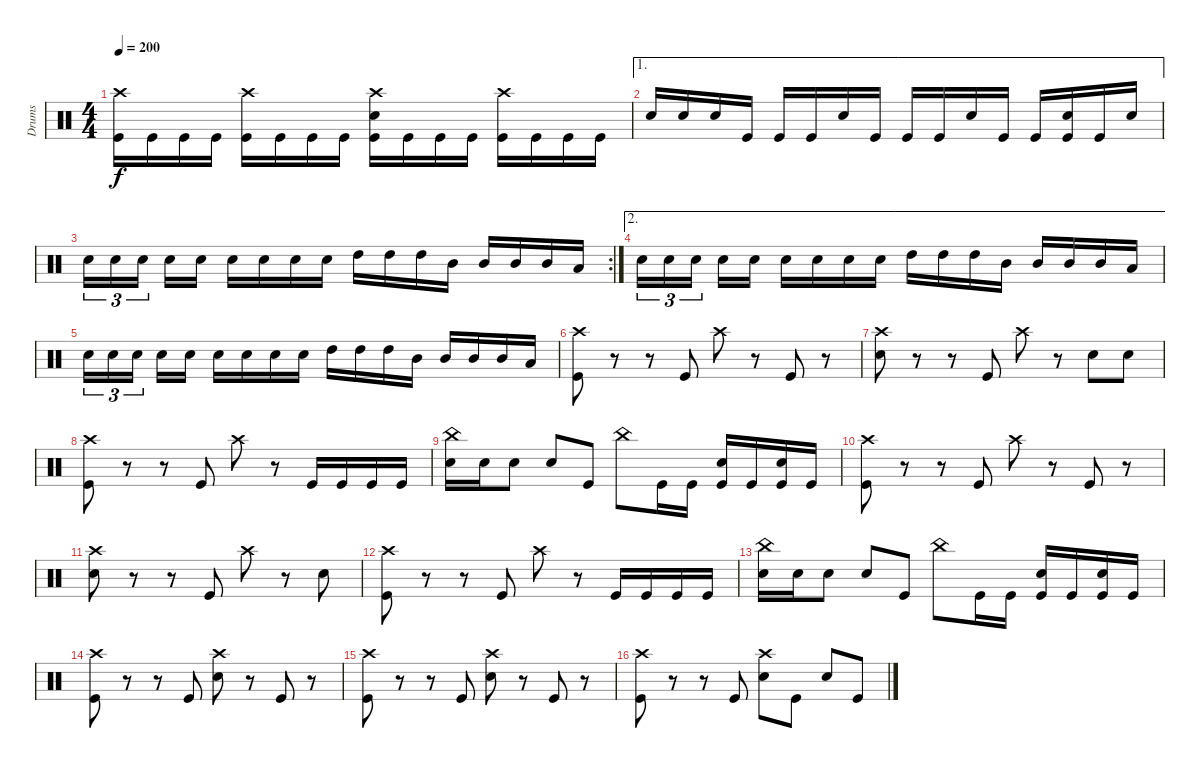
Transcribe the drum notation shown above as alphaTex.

\track ("Drums" "Drums") {instrument percussion}
\staff {score}
\articulation defaults
\ts (4 4)
\tempo 200
\clef neutral
\ks c
("Crash high (hit)" "Kick (hit)").16{dy f} "Kick (hit)".16 "Kick (hit)".16 "Kick (hit)".16 ("Crash high (hit)" "Kick (hit)").16 "Kick (hit)".16 "Kick (hit)".16 "Kick (hit)".16 ("Crash high (hit)" "Snare (hit) 2" "Kick (hit)").16 "Kick (hit)".16 "Kick (hit)".16 "Kick (hit)".16 ("Crash high (hit)" "Kick (hit)").16 "Kick (hit)".16 "Kick (hit)".16 "Kick (hit)".16 |
\ae 1 "Snare (hit) 2".16 "Snare (hit) 2".16 "Snare (hit) 2".16 "Kick (hit)".16 "Kick (hit)".16 "Kick (hit)".16 "Snare (hit) 2".16 "Kick (hit)".16 "Kick (hit)".16 "Kick (hit)".16 "Snare (hit) 2".16 "Kick (hit)".16 "Kick (hit)".16
("Snare (hit) 2" "Kick (hit)").16 "Kick (hit)".16 "Snare (hit) 2".16 |
\rc 2 "Snare (hit) 2".16{tu (3 2)} "Snare (hit) 2".16{tu (3 2)} "Snare (hit) 2".16{tu (3 2) beam splitsecondary} "Snare (hit) 2".16 "Snare (hit) 2".16 "Snare (hit) 2".16 "Snare (hit) 2".16 "Snare (hit) 2".16 "Snare (hit) 2".16 "High Tom (hit)".16 "High Tom (hit)".16 "High Tom (hit)".16 "Mid Tom (hit)".16 "Mid Tom (hit)".16 "Mid Tom (hit)".16 "Mid Tom (hit)".16 "Low Tom (hit)".16
|
\ae 2 "Snare (hit) 2".16{tu (3 2)} "Snare (hit) 2".16{tu (3 2)} "Snare (hit) 2".16{tu (3 2) beam splitsecondary} "Snare (hit) 2".16 "Snare (hit) 2".16 "Snare (hit) 2".16 "Snare (hit) 2".16 "Snare (hit) 2".16 "Snare (hit) 2".16 "High Tom (hit)".16 "High Tom (hit)".16 "High Tom (hit)".16 "Mid Tom (hit)".16 "Mid Tom (hit)".16 "Mid Tom (hit)".16 "Mid Tom (hit)".16 "Low Tom (hit)".16
|
"Snare (hit) 2".16{tu (3 2)} "Snare (hit) 2".16{tu (3 2)} "Snare (hit) 2".16{tu (3 2) beam splitsecondary} "Snare (hit) 2".16 "Snare (hit) 2".16 "Snare (hit) 2".16 "Snare (hit) 2".16 "Snare (hit) 2".16 "Snare (hit) 2".16 "High Tom (hit)".16 "High Tom (hit)".16 "High Tom (hit)".16 "Mid Tom (hit)".16 "Mid Tom (hit)".16 "Mid Tom (hit)".16 "Mid Tom (hit)".16 "Low Tom (hit)".16 |
("Crash high (hit)" "Kick (hit)").8 r.8 r.8 "Kick (hit)".8 "Crash high (hit)".8 r.8 "Kick (hit)".8 r.8 |
("Crash high (hit)" "Snare (hit) 2").8 r.8 r.8 "Kick (hit)".8 "Crash high (hit)".8 r.8 "Snare (hit) 2".8 "Snare (hit) 2".8 |
("Crash high (hit)" "Kick (hit)").8 r.8 r.8 "Kick (hit)".8 "Crash high (hit)".8 r.8 "Kick (hit)".16 "Kick (hit)".16 "Kick (hit)".16 "Kick (hit)".16 |
("China (hit)" "Snare (hit) 2").16 "Snare (hit) 2".16 "Snare (hit) 2".8 "Snare (hit) 2".8 "Kick (hit)".8 "China (hit)".8 "Kick (hit)".16 "Kick (hit)".16 ("Snare (hit) 2" "Kick (hit)").16 "Kick (hit)".16 ("Snare (hit) 2" "Kick (hit)").16 "Kick (hit)".16 |
("Crash high (hit)" "Kick (hit)").8 r.8 r.8 "Kick (hit)".8 "Crash high (hit)".8 r.8 "Kick (hit)".8 r.8 |
("Crash high (hit)" "Snare (hit) 2").8 r.8 r.8 "Kick (hit)".8 "Crash high (hit)".8 r.8 "Snare (hit) 2".8 |
("Crash high (hit)" "Kick (hit)").8 r.8 r.8 "Kick (hit)".8 "Crash high (hit)".8 r.8 "Kick (hit)".16 "Kick (hit)".16 "Kick (hit)".16 "Kick (hit)".16 |
("China (hit)" "Snare (hit) 2").16 "Snare (hit) 2".16 "Snare (hit) 2".8 "Snare (hit) 2".8 "Kick (hit)".8 "China (hit)".8 "Kick (hit)".16 "Kick (hit)".16 ("Snare (hit) 2" "Kick (hit)").16 "Kick (hit)".16 ("Snare (hit) 2" "Kick (hit)").16 "Kick (hit)".16 |
("Crash high (hit)" "Kick (hit)").8 r.8 r.8 "Kick (hit)".8 ("Crash high (hit)" "Snare (hit) 2").8 r.8 "Kick (hit)".8 r.8 |
("Crash high (hit)" "Kick (hit)").8 r.8 r.8 "Kick (hit)".8 ("Crash high (hit)" "Snare (hit) 2").8 r.8 "Kick (hit)".8 r.8 |
("Crash high (hit)" "Kick (hit)").8 r.8 r.8 "Kick (hit)".8 ("Crash high (hit)" "Snare (hit) 2").8 "Kick (hit)".8 "Snare (hit) 2".8 "Kick (hit)".8
